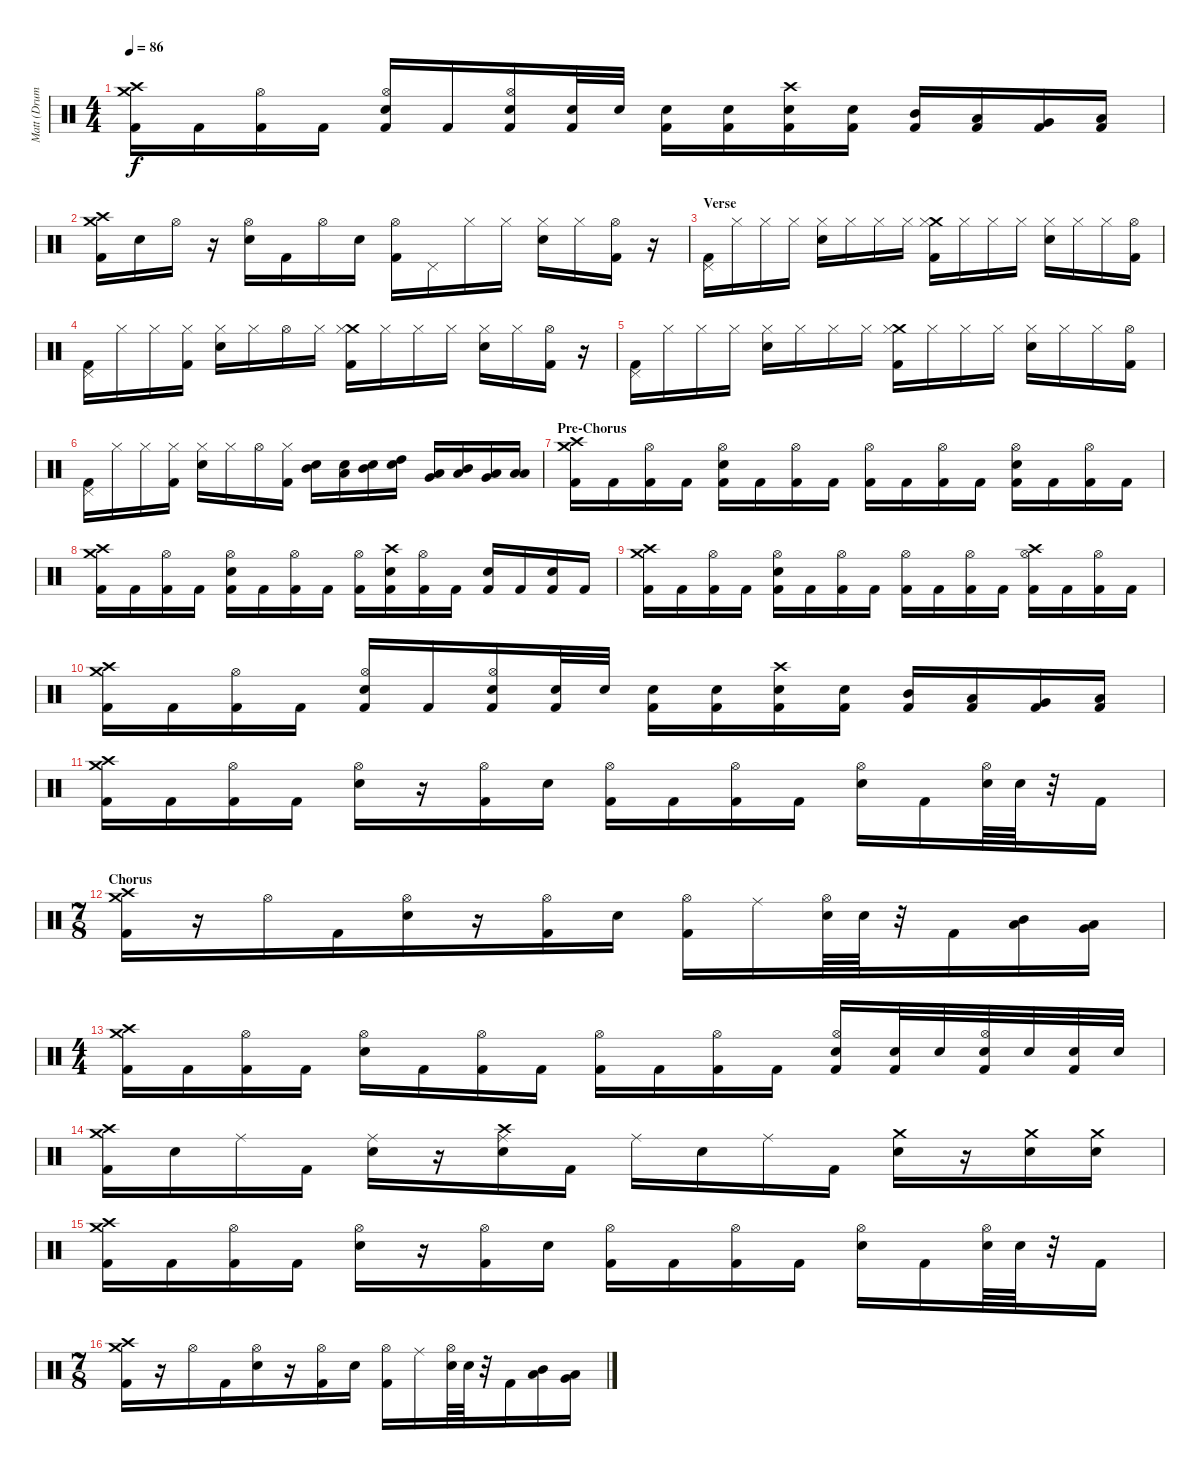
\track ("Matt (Drums)" "Matt (Drum") {instrument percussion}
\staff {score}
\articulation defaults
\ts (4 4)
\tempo 86
\clef neutral
\ks c
("Crash medium (hit)" "Crash high (hit)" "Kick (hit) 2").16{dy f} "Kick (hit) 2".16 ("Hi-Hat (open)" "Kick (hit) 2").16 "Kick (hit) 2".16 ("Hi-Hat (open)" "Snare (hit) 2" "Kick (hit) 2").16 "Kick (hit) 2".16 ("Hi-Hat (open)" "Snare (hit) 2" "Kick (hit) 2").16 ("Snare (hit) 2" "Kick (hit) 2").32 "Snare (hit) 2".32 ("Snare (hit) 2" "Kick (hit) 2").16 ("Snare (hit) 2" "Kick (hit) 2").16 ("Crash high (hit)" "Snare (hit) 2" "Kick (hit) 2").16 ("Snare (hit) 2" "Kick (hit) 2").16 ("Mid Tom (hit)" "Kick (hit) 2").16 ("Low Tom (hit)" "Kick (hit) 2").16 ("Very Low Tom (hit)" "Kick (hit) 2").16 ("Low Floor Tom (hit)" "Kick (hit) 2").16 |
("Crash medium (hit)" "Crash high (hit)" "Kick (hit) 2").16 "Snare (hit) 2".16 "Hi-Hat (open)".16 r.16 ("Hi-Hat (open)" "Snare (hit) 2").16 "Kick (hit) 2".16 "Hi-Hat (open)".16 "Snare (hit) 2".16 ("Hi-Hat (open)" "Kick (hit) 2").16 "Pedal Hi-Hat (hit)".16 "Hi-Hat (closed)".16 "Hi-Hat (closed)".16 ("Hi-Hat (closed)" "Snare (hit) 2").16 "Hi-Hat (closed)".16 ("Hi-Hat (open)" "Kick (hit) 2").16 r.16 |
\section ("" "Verse")
("Pedal Hi-Hat (hit)" "Kick (hit) 2").16 "Hi-Hat (closed)".16 "Hi-Hat (closed)".16 "Hi-Hat (closed)".16 ("Hi-Hat (closed)" "Snare (hit) 2").16 "Hi-Hat (closed)".16 "Hi-Hat (closed)".16 "Hi-Hat (closed)".16 ("Crash medium (hit)" "Hi-Hat (closed)" "Kick (hit) 2").16 "Hi-Hat (closed)".16 "Hi-Hat (closed)".16 "Hi-Hat (closed)".16 ("Hi-Hat (closed)" "Snare (hit) 2").16 "Hi-Hat (closed)".16 "Hi-Hat (closed)".16 ("Hi-Hat (open)" "Kick (hit) 2").16 |
("Pedal Hi-Hat (hit)" "Kick (hit) 2").16 "Hi-Hat (closed)".16 "Hi-Hat (closed)".16 ("Hi-Hat (closed)" "Kick (hit) 2").16 ("Hi-Hat (closed)" "Snare (hit) 2").16 "Hi-Hat (closed)".16 "Hi-Hat (open)".16 "Hi-Hat (closed)".16 ("Crash medium (hit)" "Hi-Hat (closed)" "Kick (hit) 2").16 "Hi-Hat (closed)".16 "Hi-Hat (closed)".16 "Hi-Hat (closed)".16 ("Hi-Hat (closed)" "Snare (hit) 2").16 "Hi-Hat (closed)".16 ("Hi-Hat (open)" "Kick (hit) 2").16 r.16 |
("Pedal Hi-Hat (hit)" "Kick (hit) 2").16 "Hi-Hat (closed)".16 "Hi-Hat (closed)".16 "Hi-Hat (closed)".16 ("Hi-Hat (closed)" "Snare (hit) 2").16 "Hi-Hat (closed)".16 "Hi-Hat (closed)".16 "Hi-Hat (closed)".16 ("Crash medium (hit)" "Hi-Hat (closed)" "Kick (hit) 2").16 "Hi-Hat (closed)".16 "Hi-Hat (closed)".16 "Hi-Hat (closed)".16 ("Hi-Hat (closed)" "Snare (hit) 2").16 "Hi-Hat (closed)".16 "Hi-Hat (closed)".16 ("Hi-Hat (open)" "Kick (hit) 2").16 |
("Pedal Hi-Hat (hit)" "Kick (hit) 2").16 "Hi-Hat (closed)".16 "Hi-Hat (closed)".16 ("Hi-Hat (closed)" "Kick (hit) 2").16 ("Hi-Hat (closed)" "Snare (hit) 2").16 "Hi-Hat (closed)".16 "Hi-Hat (open)".16 ("Hi-Hat (closed)" "Kick (hit) 2").16 ("Mid Tom (hit)" "Snare (hit) 2").16 ("Low Tom (hit)" "Snare (hit) 2").16 ("Mid Tom (hit)" "Snare (hit) 2").16 ("High Tom (hit)" "Snare (hit) 2").16 ("Low Tom (hit)" "Very Low Tom (hit)").16 ("Mid Tom (hit)" "Low Tom (hit)").16 ("Very Low Tom (hit)" "Low Floor Tom (hit)").16 ("Low Floor Tom (hit)" "Low Floor Tom (hit)").16 |
\section ("" "Pre-Chorus")
("Crash medium (hit)" "Crash high (hit)" "Kick (hit) 2").16 "Kick (hit) 2".16 ("Hi-Hat (open)" "Kick (hit) 2").16 "Kick (hit) 2".16 ("Hi-Hat (open)" "Snare (hit) 2" "Kick (hit) 2").16 "Kick (hit) 2".16 ("Hi-Hat (open)" "Kick (hit) 2").16 "Kick (hit) 2".16 ("Hi-Hat (open)" "Kick (hit) 2").16 "Kick (hit) 2".16 ("Hi-Hat (open)" "Kick (hit) 2").16 "Kick (hit) 2".16 ("Hi-Hat (open)" "Snare (hit) 2" "Kick (hit) 2").16 "Kick (hit) 2".16 ("Hi-Hat (open)" "Kick (hit) 2").16 "Kick (hit) 2".16 |
("Crash medium (hit)" "Crash high (hit)" "Kick (hit) 2").16 "Kick (hit) 2".16 ("Hi-Hat (open)" "Kick (hit) 2").16 "Kick (hit) 2".16 ("Hi-Hat (open)" "Snare (hit) 2" "Kick (hit) 2").16 "Kick (hit) 2".16 ("Hi-Hat (open)" "Kick (hit) 2").16 "Kick (hit) 2".16 ("Hi-Hat (open)" "Kick (hit) 2").16 ("Crash high (hit)" "Snare (hit) 2" "Kick (hit) 2").16 ("Hi-Hat (open)" "Kick (hit) 2").16 "Kick (hit) 2".16 ("Snare (hit) 2" "Kick (hit) 2").16 "Kick (hit) 2".16 ("Snare (hit) 2" "Kick (hit) 2").16 "Kick (hit) 2".16 |
("Crash medium (hit)" "Crash high (hit)" "Kick (hit) 2").16 "Kick (hit) 2".16 ("Hi-Hat (open)" "Kick (hit) 2").16 "Kick (hit) 2".16 ("Hi-Hat (open)" "Snare (hit) 2" "Kick (hit) 2").16 "Kick (hit) 2".16 ("Hi-Hat (open)" "Kick (hit) 2").16 "Kick (hit) 2".16 ("Hi-Hat (open)" "Kick (hit) 2").16 "Kick (hit) 2".16 ("Hi-Hat (open)" "Kick (hit) 2").16 "Kick (hit) 2".16 ("Crash high (hit)" "Hi-Hat (open)" "Kick (hit) 2").16 "Kick (hit) 2".16 ("Hi-Hat (open)" "Kick (hit) 2").16 "Kick (hit) 2".16 |
("Crash medium (hit)" "Crash high (hit)" "Kick (hit) 2").16 "Kick (hit) 2".16 ("Hi-Hat (open)" "Kick (hit) 2").16 "Kick (hit) 2".16 ("Hi-Hat (open)" "Snare (hit) 2" "Kick (hit) 2").16 "Kick (hit) 2".16 ("Hi-Hat (open)" "Snare (hit) 2" "Kick (hit) 2").16 ("Snare (hit) 2" "Kick (hit) 2").32 "Snare (hit) 2".32 ("Snare (hit) 2" "Kick (hit) 2").16 ("Snare (hit) 2" "Kick (hit) 2").16 ("Crash high (hit)" "Snare (hit) 2" "Kick (hit) 2").16 ("Snare (hit) 2" "Kick (hit) 2").16 ("Mid Tom (hit)" "Kick (hit) 2").16 ("Low Tom (hit)" "Kick (hit) 2").16 ("Very Low Tom (hit)" "Kick (hit) 2").16 ("Low Floor Tom (hit)" "Kick (hit) 2").16 |
("Crash medium (hit)" "Crash high (hit)" "Kick (hit) 2").16 "Kick (hit) 2".16 ("Hi-Hat (open)" "Kick (hit) 2").16 "Kick (hit) 2".16 ("Hi-Hat (open)" "Snare (hit) 2").16 r.16 ("Hi-Hat (open)" "Kick (hit) 2").16 "Snare (hit) 2".16 ("Hi-Hat (open)" "Kick (hit) 2").16 "Kick (hit) 2".16 ("Hi-Hat (open)" "Kick (hit) 2").16 "Kick (hit) 2".16 ("Hi-Hat (open)" "Snare (hit) 2").16 "Kick (hit) 2".16 ("Hi-Hat (open)" "Snare (hit) 2").64 "Snare (hit) 2".64 r.32 "Kick (hit) 2".16 |
\ts (7 8)
\section ("" "Chorus")
("Crash medium (hit)" "Crash high (hit)" "Kick (hit) 2").16 r.16 "Hi-Hat (open)".16 "Kick (hit) 2".16 ("Hi-Hat (open)" "Snare (hit) 2").16 r.16 ("Hi-Hat (open)" "Kick (hit) 2").16 "Snare (hit) 2".16 ("Hi-Hat (open)" "Kick (hit) 2").16 "Ride (middle)".16 ("Hi-Hat (open)" "Snare (hit) 2").64 "Snare (hit) 2".64 r.32 "Kick (hit) 2".16 ("Mid Tom (hit)" "Low Tom (hit)").16 ("Low Tom (hit)" "Very Low Tom (hit)").16 |
\ts (4 4)
("Crash medium (hit)" "Crash high (hit)" "Kick (hit) 2").16 "Kick (hit) 2".16 ("Hi-Hat (open)" "Kick (hit) 2").16 "Kick (hit) 2".16 ("Hi-Hat (open)" "Snare (hit) 2").16 "Kick (hit) 2".16 ("Hi-Hat (open)" "Kick (hit) 2").16 "Kick (hit) 2".16 ("Hi-Hat (open)" "Kick (hit) 2").16 "Kick (hit) 2".16 ("Hi-Hat (open)" "Kick (hit) 2").16 "Kick (hit) 2".16 ("Hi-Hat (open)" "Snare (hit) 2" "Kick (hit) 2").16 ("Snare (hit) 2" "Kick (hit) 2").32 "Snare (hit) 2".32 ("Hi-Hat (open)" "Snare (hit) 2" "Kick (hit) 2").32 "Snare (hit) 2".32 ("Snare (hit) 2" "Kick (hit) 2").32 "Snare (hit) 2".32 |
("Crash medium (hit)" "Crash high (hit)" "Kick (hit) 2").16 "Snare (hit) 2".16 "Ride (middle)".16 "Kick (hit) 2".16 ("Ride (middle)" "Snare (hit) 2").16 r.16 ("Crash high (hit)" "Ride (middle)" "Snare (hit) 2").16 "Kick (hit) 2".16 "Ride (middle)".16 "Snare (hit) 2".16 "Ride (middle)".16 "Kick (hit) 2".16 ("Crash medium (hit)" "Snare (hit) 2").16 r.16 ("Crash medium (hit)" "Snare (hit) 2").16 ("Crash medium (hit)" "Snare (hit) 2").16 |
("Crash medium (hit)" "Crash high (hit)" "Kick (hit) 2").16 "Kick (hit) 2".16 ("Hi-Hat (open)" "Kick (hit) 2").16 "Kick (hit) 2".16 ("Hi-Hat (open)" "Snare (hit) 2").16 r.16 ("Hi-Hat (open)" "Kick (hit) 2").16 "Snare (hit) 2".16 ("Hi-Hat (open)" "Kick (hit) 2").16 "Kick (hit) 2".16 ("Hi-Hat (open)" "Kick (hit) 2").16 "Kick (hit) 2".16 ("Hi-Hat (open)" "Snare (hit) 2").16 "Kick (hit) 2".16 ("Hi-Hat (open)" "Snare (hit) 2").64 "Snare (hit) 2".64 r.32 "Kick (hit) 2".16 |
\ts (7 8)
("Crash medium (hit)" "Crash high (hit)" "Kick (hit) 2").16 r.16 "Hi-Hat (open)".16 "Kick (hit) 2".16 ("Hi-Hat (open)" "Snare (hit) 2").16 r.16 ("Hi-Hat (open)" "Kick (hit) 2").16 "Snare (hit) 2".16 ("Hi-Hat (open)" "Kick (hit) 2").16 "Ride (middle)".16 ("Hi-Hat (open)" "Snare (hit) 2").64 "Snare (hit) 2".64 r.32 "Kick (hit) 2".16 ("Mid Tom (hit)" "Low Tom (hit)").16 ("Low Tom (hit)" "Very Low Tom (hit)").16
